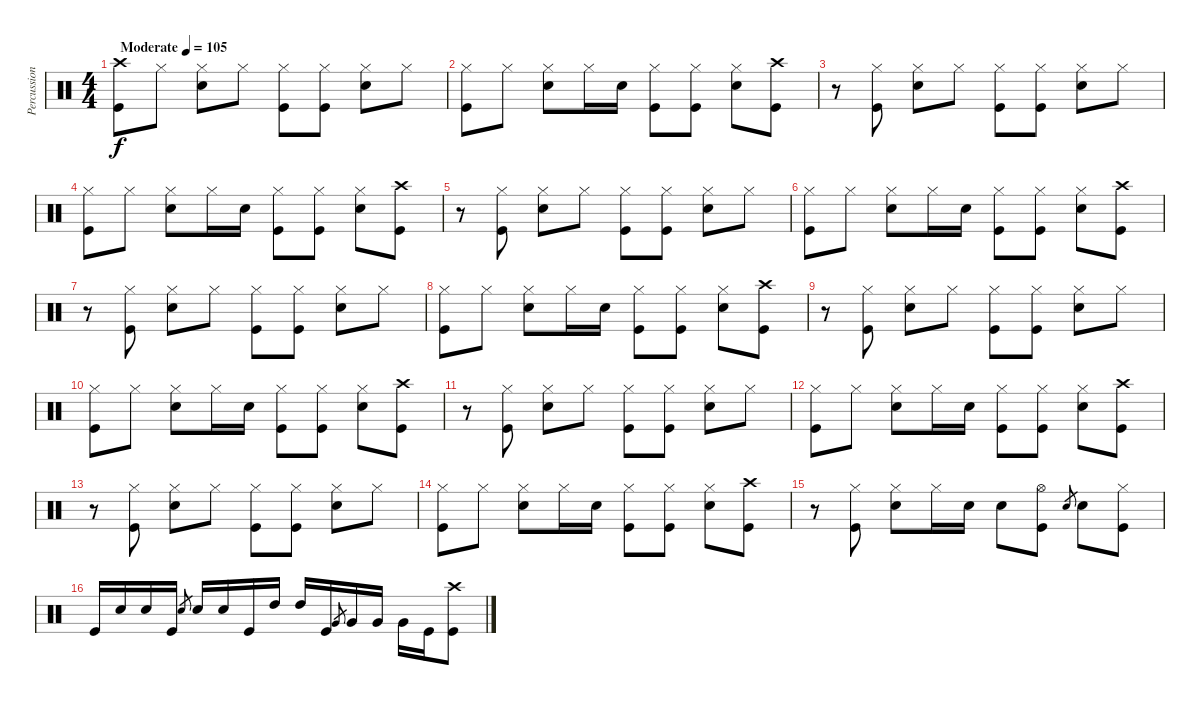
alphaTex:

\track ("Percussions" "Percussion") {instrument percussion}
\staff {score}
\articulation defaults
\ts (4 4)
\tempo (105 "Moderate")
\clef neutral
\ks c
("Kick (hit)" "Crash high (hit)").8{dy f} "Hi-Hat (closed)".8 ("Snare (hit) 2" "Hi-Hat (closed)").8 "Hi-Hat (closed)".8 ("Kick (hit)" "Hi-Hat (closed)").8 ("Kick (hit)" "Hi-Hat (closed)").8 ("Snare (hit) 2" "Hi-Hat (closed)").8 "Hi-Hat (closed)".8 |
("Kick (hit)" "Hi-Hat (closed)").8 "Hi-Hat (closed)".8 ("Snare (hit) 2" "Hi-Hat (closed)").8 "Hi-Hat (closed)".16 "Snare (hit) 2".16 ("Kick (hit)" "Hi-Hat (closed)").8 ("Kick (hit)" "Hi-Hat (closed)").8 ("Snare (hit) 2" "Hi-Hat (closed)").8 ("Kick (hit)" "Crash high (hit)").8 |
r.8 ("Hi-Hat (closed)" "Kick (hit)").8 ("Snare (hit) 2" "Hi-Hat (closed)").8 "Hi-Hat (closed)".8 ("Kick (hit)" "Hi-Hat (closed)").8 ("Kick (hit)" "Hi-Hat (closed)").8 ("Snare (hit) 2" "Hi-Hat (closed)").8 "Hi-Hat (closed)".8 |
("Kick (hit)" "Hi-Hat (closed)").8 "Hi-Hat (closed)".8 ("Snare (hit) 2" "Hi-Hat (closed)").8 "Hi-Hat (closed)".16 "Snare (hit) 2".16 ("Kick (hit)" "Hi-Hat (closed)").8 ("Kick (hit)" "Hi-Hat (closed)").8 ("Snare (hit) 2" "Hi-Hat (closed)").8 ("Kick (hit)" "Crash high (hit)").8 |
r.8 ("Hi-Hat (closed)" "Kick (hit)").8 ("Snare (hit) 2" "Hi-Hat (closed)").8 "Hi-Hat (closed)".8 ("Kick (hit)" "Hi-Hat (closed)").8 ("Kick (hit)" "Hi-Hat (closed)").8 ("Snare (hit) 2" "Hi-Hat (closed)").8 "Hi-Hat (closed)".8 |
("Kick (hit)" "Hi-Hat (closed)").8 "Hi-Hat (closed)".8 ("Snare (hit) 2" "Hi-Hat (closed)").8 "Hi-Hat (closed)".16 "Snare (hit) 2".16 ("Kick (hit)" "Hi-Hat (closed)").8 ("Kick (hit)" "Hi-Hat (closed)").8 ("Snare (hit) 2" "Hi-Hat (closed)").8 ("Kick (hit)" "Crash high (hit)").8 |
r.8 ("Hi-Hat (closed)" "Kick (hit)").8 ("Snare (hit) 2" "Hi-Hat (closed)").8 "Hi-Hat (closed)".8 ("Kick (hit)" "Hi-Hat (closed)").8 ("Kick (hit)" "Hi-Hat (closed)").8 ("Snare (hit) 2" "Hi-Hat (closed)").8 "Hi-Hat (closed)".8 |
("Kick (hit)" "Hi-Hat (closed)").8 "Hi-Hat (closed)".8 ("Snare (hit) 2" "Hi-Hat (closed)").8 "Hi-Hat (closed)".16 "Snare (hit) 2".16 ("Kick (hit)" "Hi-Hat (closed)").8 ("Kick (hit)" "Hi-Hat (closed)").8 ("Snare (hit) 2" "Hi-Hat (closed)").8 ("Kick (hit)" "Crash high (hit)").8 |
r.8 ("Hi-Hat (closed)" "Kick (hit)").8 ("Snare (hit) 2" "Hi-Hat (closed)").8 "Hi-Hat (closed)".8 ("Kick (hit)" "Hi-Hat (closed)").8 ("Kick (hit)" "Hi-Hat (closed)").8 ("Snare (hit) 2" "Hi-Hat (closed)").8 "Hi-Hat (closed)".8 |
("Kick (hit)" "Hi-Hat (closed)").8 "Hi-Hat (closed)".8 ("Snare (hit) 2" "Hi-Hat (closed)").8 "Hi-Hat (closed)".16 "Snare (hit) 2".16 ("Kick (hit)" "Hi-Hat (closed)").8 ("Kick (hit)" "Hi-Hat (closed)").8 ("Snare (hit) 2" "Hi-Hat (closed)").8 ("Kick (hit)" "Crash high (hit)").8 |
r.8 ("Hi-Hat (closed)" "Kick (hit)").8 ("Snare (hit) 2" "Hi-Hat (closed)").8 "Hi-Hat (closed)".8 ("Kick (hit)" "Hi-Hat (closed)").8 ("Kick (hit)" "Hi-Hat (closed)").8 ("Snare (hit) 2" "Hi-Hat (closed)").8 "Hi-Hat (closed)".8 |
("Kick (hit)" "Hi-Hat (closed)").8 "Hi-Hat (closed)".8 ("Snare (hit) 2" "Hi-Hat (closed)").8 "Hi-Hat (closed)".16 "Snare (hit) 2".16 ("Kick (hit)" "Hi-Hat (closed)").8 ("Kick (hit)" "Hi-Hat (closed)").8 ("Snare (hit) 2" "Hi-Hat (closed)").8 ("Kick (hit)" "Crash high (hit)").8 |
r.8 ("Hi-Hat (closed)" "Kick (hit)").8 ("Snare (hit) 2" "Hi-Hat (closed)").8 "Hi-Hat (closed)".8 ("Kick (hit)" "Hi-Hat (closed)").8 ("Kick (hit)" "Hi-Hat (closed)").8 ("Snare (hit) 2" "Hi-Hat (closed)").8 "Hi-Hat (closed)".8 |
("Kick (hit)" "Hi-Hat (closed)").8 "Hi-Hat (closed)".8 ("Snare (hit) 2" "Hi-Hat (closed)").8 "Hi-Hat (closed)".16 "Snare (hit) 2".16 ("Kick (hit)" "Hi-Hat (closed)").8 ("Kick (hit)" "Hi-Hat (closed)").8 ("Snare (hit) 2" "Hi-Hat (closed)").8 ("Kick (hit)" "Crash high (hit)").8 |
r.8 ("Hi-Hat (closed)" "Kick (hit)").8 ("Snare (hit) 2" "Hi-Hat (closed)").8 "Hi-Hat (closed)".16 "Snare (hit) 2".16 "Snare (hit) 2".8 ("Kick (hit)" "Hi-Hat (open)").8 "Snare (hit) 2".8{gr} "Snare (hit) 2".8 ("Kick (hit)" "Hi-Hat (closed)").8 |
"Kick (hit)".16 "Snare (hit) 2".16 "Snare (hit) 2".16 "Kick (hit)".16 "Snare (hit) 2".8{gr} "Snare (hit) 2".16 "Snare (hit) 2".16 "Kick (hit)".16 "High Tom (hit)".16 "High Tom (hit)".16 "Kick (hit)".16 "Very Low Tom (hit)".8{gr} "Very Low Tom (hit)".16 "Very Low Tom (hit)".16 "Very Low Tom (hit)".16 "Kick (hit)".16 ("Crash high (hit)" "Kick (hit)").8
